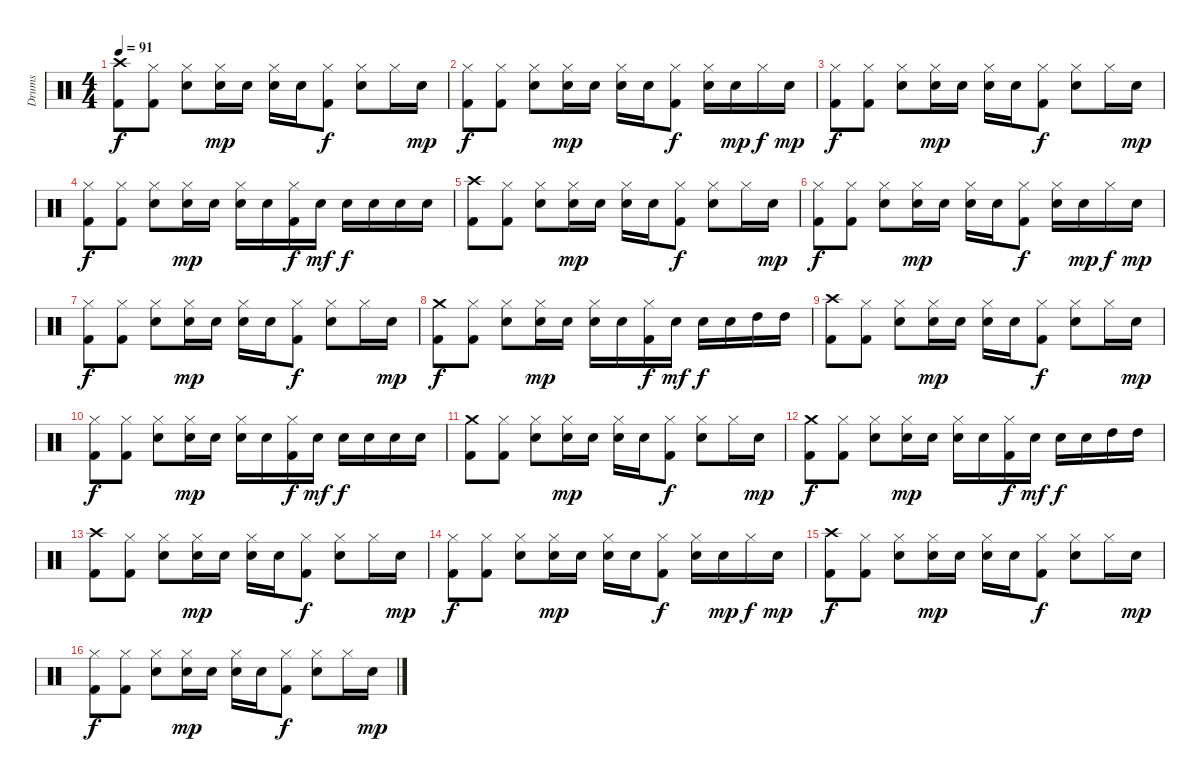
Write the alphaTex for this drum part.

\track ("Drums" "Drums") {instrument percussion}
\staff {score}
\articulation defaults
\ts (4 4)
\tempo 91
\clef neutral
\ks c
("Kick (hit) 2" "Crash high (hit)").8{dy f} ("Kick (hit) 2" "Hi-Hat (closed)").8 ("Snare (hit) 2" "Hi-Hat (closed)").8 ("Snare (hit) 2" "Hi-Hat (closed)").16{dy mp} "Snare (hit) 2".16 ("Snare (hit) 2" "Hi-Hat (closed)").16 "Snare (hit) 2".16 ("Kick (hit) 2" "Hi-Hat (closed)").8{dy f} ("Snare (hit) 2" "Hi-Hat (closed)").8 "Hi-Hat (closed)".16 "Snare (hit) 2".16{dy mp} |
("Kick (hit) 2" "Hi-Hat (closed)").8{dy f} ("Kick (hit) 2" "Hi-Hat (closed)").8 ("Snare (hit) 2" "Hi-Hat (closed)").8 ("Snare (hit) 2" "Hi-Hat (closed)").16{dy mp} "Snare (hit) 2".16 ("Snare (hit) 2" "Hi-Hat (closed)").16 "Snare (hit) 2".16 ("Kick (hit) 2" "Hi-Hat (closed)").8{dy f} ("Snare (hit) 2" "Hi-Hat (closed)").16 "Snare (hit) 2".16{dy mp} "Hi-Hat (closed)".16{dy f} "Snare (hit) 2".16{dy mp} |
("Kick (hit) 2" "Hi-Hat (closed)").8{dy f} ("Kick (hit) 2" "Hi-Hat (closed)").8 ("Snare (hit) 2" "Hi-Hat (closed)").8 ("Snare (hit) 2" "Hi-Hat (closed)").16{dy mp} "Snare (hit) 2".16 ("Snare (hit) 2" "Hi-Hat (closed)").16 "Snare (hit) 2".16 ("Kick (hit) 2" "Hi-Hat (closed)").8{dy f} ("Snare (hit) 2" "Hi-Hat (closed)").8 "Hi-Hat (closed)".16 "Snare (hit) 2".16{dy mp} |
("Hi-Hat (closed)" "Kick (hit) 2").8{dy f} ("Hi-Hat (closed)" "Kick (hit) 2").8 ("Hi-Hat (closed)" "Snare (hit) 2").8 ("Hi-Hat (closed)" "Snare (hit) 2").16{dy mp} "Snare (hit) 2".16 ("Hi-Hat (closed)" "Snare (hit) 2").16 "Snare (hit) 2".16 ("Hi-Hat (closed)" "Kick (hit) 2").16{dy f} "Snare (hit) 2".16{dy mf} "Snare (hit) 2".16{dy f} "Snare (hit) 2".16 "Snare (hit) 2".16 "Snare (hit) 2".16 |
("Kick (hit) 2" "Crash high (hit)").8 ("Kick (hit) 2" "Hi-Hat (closed)").8 ("Snare (hit) 2" "Hi-Hat (closed)").8 ("Snare (hit) 2" "Hi-Hat (closed)").16{dy mp} "Snare (hit) 2".16 ("Snare (hit) 2" "Hi-Hat (closed)").16 "Snare (hit) 2".16 ("Kick (hit) 2" "Hi-Hat (closed)").8{dy f} ("Snare (hit) 2" "Hi-Hat (closed)").8 "Hi-Hat (closed)".16 "Snare (hit) 2".16{dy mp} |
("Kick (hit) 2" "Hi-Hat (closed)").8{dy f} ("Kick (hit) 2" "Hi-Hat (closed)").8 ("Snare (hit) 2" "Hi-Hat (closed)").8 ("Snare (hit) 2" "Hi-Hat (closed)").16{dy mp} "Snare (hit) 2".16 ("Snare (hit) 2" "Hi-Hat (closed)").16 "Snare (hit) 2".16 ("Kick (hit) 2" "Hi-Hat (closed)").8{dy f} ("Snare (hit) 2" "Hi-Hat (closed)").16 "Snare (hit) 2".16{dy mp} "Hi-Hat (closed)".16{dy f} "Snare (hit) 2".16{dy mp} |
("Kick (hit) 2" "Hi-Hat (closed)").8{dy f} ("Kick (hit) 2" "Hi-Hat (closed)").8 ("Snare (hit) 2" "Hi-Hat (closed)").8 ("Snare (hit) 2" "Hi-Hat (closed)").16{dy mp} "Snare (hit) 2".16 ("Snare (hit) 2" "Hi-Hat (closed)").16 "Snare (hit) 2".16 ("Kick (hit) 2" "Hi-Hat (closed)").8{dy f} ("Snare (hit) 2" "Hi-Hat (closed)").8 "Hi-Hat (closed)".16 "Snare (hit) 2".16{dy mp} |
("Crash medium (hit)" "Kick (hit) 2").8{dy f} ("Hi-Hat (closed)" "Kick (hit) 2").8 ("Hi-Hat (closed)" "Snare (hit) 2").8 ("Hi-Hat (closed)" "Snare (hit) 2").16{dy mp} "Snare (hit) 2".16 ("Hi-Hat (closed)" "Snare (hit) 2").16 "Snare (hit) 2".16 ("Hi-Hat (closed)" "Kick (hit) 2").16{dy f} "Snare (hit) 2".16{dy mf} "Snare (hit) 2".16{dy f} "Snare (hit) 2".16 "High Tom (hit)".16 "High Tom (hit)".16 |
("Kick (hit) 2" "Crash high (hit)").8{volume 16} ("Kick (hit) 2" "Hi-Hat (closed)").8 ("Snare (hit) 2" "Hi-Hat (closed)").8 ("Snare (hit) 2" "Hi-Hat (closed)").16{dy mp} "Snare (hit) 2".16 ("Snare (hit) 2" "Hi-Hat (closed)").16 "Snare (hit) 2".16 ("Kick (hit) 2" "Hi-Hat (closed)").8{dy f} ("Snare (hit) 2" "Hi-Hat (closed)").8 "Hi-Hat (closed)".16 "Snare (hit) 2".16{dy mp} |
("Kick (hit) 2" "Hi-Hat (closed)").8{dy f} ("Kick (hit) 2" "Hi-Hat (closed)").8 ("Snare (hit) 2" "Hi-Hat (closed)").8 ("Snare (hit) 2" "Hi-Hat (closed)").16{dy mp} "Snare (hit) 2".16 ("Snare (hit) 2" "Hi-Hat (closed)").16 "Snare (hit) 2".16 ("Kick (hit) 2" "Hi-Hat (closed)").16{dy f} "Snare (hit) 2".16{dy mf} "Snare (hit) 2".16{dy f} "Snare (hit) 2".16 "Snare (hit) 2".16 "Snare (hit) 2".16 |
("Kick (hit) 2" "Crash medium (hit)").8 ("Kick (hit) 2" "Hi-Hat (closed)").8 ("Snare (hit) 2" "Hi-Hat (closed)").8 ("Snare (hit) 2" "Hi-Hat (closed)").16{dy mp} "Snare (hit) 2".16 ("Snare (hit) 2" "Hi-Hat (closed)").16 "Snare (hit) 2".16 ("Kick (hit) 2" "Hi-Hat (closed)").8{dy f} ("Snare (hit) 2" "Hi-Hat (closed)").8 "Hi-Hat (closed)".16 "Snare (hit) 2".16{dy mp} |
("Crash medium (hit)" "Kick (hit) 2").8{dy f} ("Hi-Hat (closed)" "Kick (hit) 2").8 ("Hi-Hat (closed)" "Snare (hit) 2").8 ("Hi-Hat (closed)" "Snare (hit) 2").16{dy mp} "Snare (hit) 2".16 ("Hi-Hat (closed)" "Snare (hit) 2").16 "Snare (hit) 2".16 ("Hi-Hat (closed)" "Kick (hit) 2").16{dy f} "Snare (hit) 2".16{dy mf} "Snare (hit) 2".16{dy f} "Snare (hit) 2".16 "High Tom (hit)".16 "High Tom (hit)".16 |
("Kick (hit) 2" "Crash high (hit)").8 ("Kick (hit) 2" "Hi-Hat (closed)").8 ("Snare (hit) 2" "Hi-Hat (closed)").8 ("Snare (hit) 2" "Hi-Hat (closed)").16{dy mp} "Snare (hit) 2".16 ("Snare (hit) 2" "Hi-Hat (closed)").16 "Snare (hit) 2".16 ("Kick (hit) 2" "Hi-Hat (closed)").8{dy f} ("Snare (hit) 2" "Hi-Hat (closed)").8 "Hi-Hat (closed)".16 "Snare (hit) 2".16{dy mp} |
("Kick (hit) 2" "Hi-Hat (closed)").8{dy f} ("Kick (hit) 2" "Hi-Hat (closed)").8 ("Snare (hit) 2" "Hi-Hat (closed)").8 ("Snare (hit) 2" "Hi-Hat (closed)").16{dy mp} "Snare (hit) 2".16 ("Snare (hit) 2" "Hi-Hat (closed)").16 "Snare (hit) 2".16 ("Kick (hit) 2" "Hi-Hat (closed)").8{dy f} ("Snare (hit) 2" "Hi-Hat (closed)").16 "Snare (hit) 2".16{dy mp} "Hi-Hat (closed)".16{dy f} "Snare (hit) 2".16{dy mp} |
("Kick (hit) 2" "Crash high (hit)").8{dy f} ("Kick (hit) 2" "Hi-Hat (closed)").8 ("Snare (hit) 2" "Hi-Hat (closed)").8 ("Snare (hit) 2" "Hi-Hat (closed)").16{dy mp} "Snare (hit) 2".16 ("Snare (hit) 2" "Hi-Hat (closed)").16 "Snare (hit) 2".16 ("Kick (hit) 2" "Hi-Hat (closed)").8{dy f} ("Snare (hit) 2" "Hi-Hat (closed)").8 "Hi-Hat (closed)".16 "Snare (hit) 2".16{dy mp} |
("Hi-Hat (closed)" "Kick (hit) 2").8{dy f} ("Hi-Hat (closed)" "Kick (hit) 2").8 ("Hi-Hat (closed)" "Snare (hit) 2").8 ("Hi-Hat (closed)" "Snare (hit) 2").16{dy mp} "Snare (hit) 2".16 ("Hi-Hat (closed)" "Snare (hit) 2").16 "Snare (hit) 2".16 ("Hi-Hat (closed)" "Kick (hit) 2").8{dy f} ("Snare (hit) 2" "Hi-Hat (closed)").8 "Hi-Hat (closed)".16 "Snare (hit) 2".16{dy mp}
